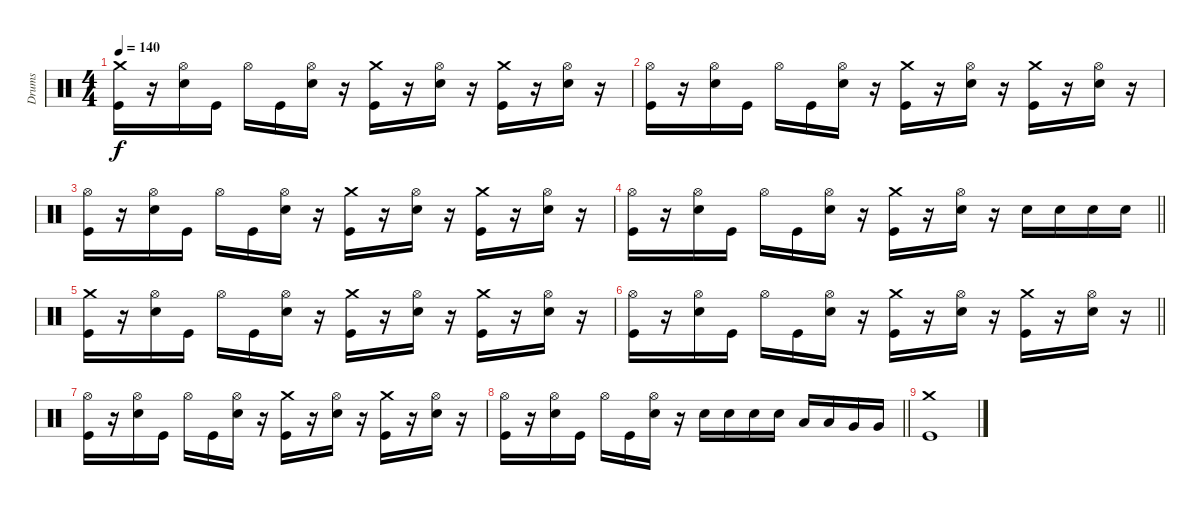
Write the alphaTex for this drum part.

\track ("Drums" "Drums") {instrument percussion}
\staff {score}
\articulation defaults
\ts (4 4)
\tempo 140
\clef neutral
\ks c
("Crash medium (hit)" "Kick (hit)").16{dy f} r.16 ("Hi-Hat (open)" "Snare (hit) 2").16 "Kick (hit)".16 "Hi-Hat (open)".16 "Kick (hit)".16 ("Hi-Hat (open)" "Snare (hit) 2").16 r.16 ("Crash medium (hit)" "Kick (hit)").16 r.16 ("Hi-Hat (open)" "Snare (hit) 2").16 r.16 ("Crash medium (hit)" "Kick (hit)").16 r.16 ("Hi-Hat (open)" "Snare (hit) 2").16 r.16 |
("Hi-Hat (open)" "Kick (hit)").16 r.16 ("Hi-Hat (open)" "Snare (hit) 2").16 "Kick (hit)".16 "Hi-Hat (open)".16 "Kick (hit)".16 ("Hi-Hat (open)" "Snare (hit) 2").16 r.16 ("Crash medium (hit)" "Kick (hit)").16 r.16 ("Hi-Hat (open)" "Snare (hit) 2").16 r.16 ("Crash medium (hit)" "Kick (hit)").16 r.16 ("Hi-Hat (open)" "Snare (hit) 2").16 r.16 |
("Hi-Hat (open)" "Kick (hit)").16 r.16 ("Hi-Hat (open)" "Snare (hit) 2").16 "Kick (hit)".16 "Hi-Hat (open)".16 "Kick (hit)".16 ("Hi-Hat (open)" "Snare (hit) 2").16 r.16 ("Crash medium (hit)" "Kick (hit)").16 r.16 ("Hi-Hat (open)" "Snare (hit) 2").16 r.16 ("Crash medium (hit)" "Kick (hit)").16 r.16 ("Hi-Hat (open)" "Snare (hit) 2").16 r.16 |
\barLineRight lightlight
("Hi-Hat (open)" "Kick (hit)").16 r.16 ("Hi-Hat (open)" "Snare (hit) 2").16 "Kick (hit)".16 "Hi-Hat (open)".16 "Kick (hit)".16 ("Hi-Hat (open)" "Snare (hit) 2").16 r.16 ("Crash medium (hit)" "Kick (hit)").16 r.16 ("Hi-Hat (open)" "Snare (hit) 2").16 r.16 "Snare (hit) 2".16 "Snare (hit) 2".16 "Snare (hit) 2".16 "Snare (hit) 2".16 |
("Crash medium (hit)" "Kick (hit)").16 r.16 ("Hi-Hat (open)" "Snare (hit) 2").16 "Kick (hit)".16 "Hi-Hat (open)".16 "Kick (hit)".16 ("Hi-Hat (open)" "Snare (hit) 2").16 r.16 ("Crash medium (hit)" "Kick (hit)").16 r.16 ("Hi-Hat (open)" "Snare (hit) 2").16 r.16 ("Crash medium (hit)" "Kick (hit)").16 r.16 ("Hi-Hat (open)" "Snare (hit) 2").16 r.16 |
\barLineRight lightlight
("Hi-Hat (open)" "Kick (hit)").16 r.16 ("Hi-Hat (open)" "Snare (hit) 2").16 "Kick (hit)".16 "Hi-Hat (open)".16 "Kick (hit)".16 ("Hi-Hat (open)" "Snare (hit) 2").16 r.16 ("Crash medium (hit)" "Kick (hit)").16 r.16 ("Hi-Hat (open)" "Snare (hit) 2").16 r.16 ("Crash medium (hit)" "Kick (hit)").16 r.16 ("Hi-Hat (open)" "Snare (hit) 2").16 r.16 |
("Hi-Hat (open)" "Kick (hit)").16 r.16 ("Hi-Hat (open)" "Snare (hit) 2").16 "Kick (hit)".16 "Hi-Hat (open)".16 "Kick (hit)".16 ("Hi-Hat (open)" "Snare (hit) 2").16 r.16 ("Crash medium (hit)" "Kick (hit)").16 r.16 ("Hi-Hat (open)" "Snare (hit) 2").16 r.16 ("Crash medium (hit)" "Kick (hit)").16 r.16 ("Hi-Hat (open)" "Snare (hit) 2").16 r.16 |
\barLineRight lightlight
("Hi-Hat (open)" "Kick (hit)").16 r.16 ("Hi-Hat (open)" "Snare (hit) 2").16 "Kick (hit)".16 "Hi-Hat (open)".16 "Kick (hit)".16 ("Hi-Hat (open)" "Snare (hit) 2").16 r.16 "Snare (hit) 2".16 "Snare (hit) 2".16 "Snare (hit) 2".16 "Snare (hit) 2".16 "Low Tom (hit)".16 "Low Tom (hit)".16 "Very Low Tom (hit)".16 "Very Low Tom (hit)".16 |
("Crash medium (hit)" "Kick (hit)").1
